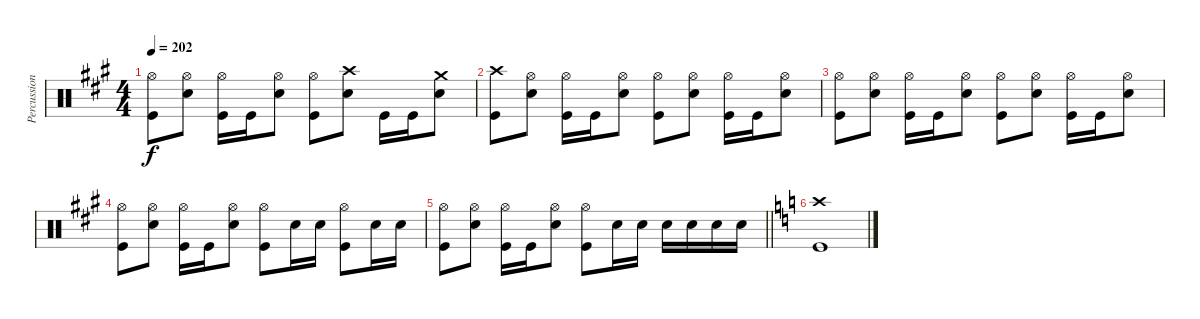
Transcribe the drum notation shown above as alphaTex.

\track ("Percussion" "Percussion") {instrument percussion}
\staff {score}
\articulation defaults
\ts (4 4)
\tempo 202
\clef neutral
\ks a
("Hi-Hat (open)" "Kick (hit)").8{dy f} ("Hi-Hat (open)" "Electric Snare (hit)").8 ("Hi-Hat (open)" "Kick (hit)").16 "Kick (hit)".16 ("Hi-Hat (open)" "Electric Snare (hit)").8 ("Hi-Hat (open)" "Kick (hit)").8 ("Crash high (hit)" "Electric Snare (hit)").8 "Kick (hit)".16 "Kick (hit)".16 ("Crash medium (hit)" "Electric Snare (hit)").8 |
("Crash high (hit)" "Kick (hit)").8 ("Hi-Hat (open)" "Electric Snare (hit)").8 ("Hi-Hat (open)" "Kick (hit)").16 "Kick (hit)".16 ("Hi-Hat (open)" "Electric Snare (hit)").8 ("Hi-Hat (open)" "Kick (hit)").8 ("Hi-Hat (open)" "Electric Snare (hit)").8 ("Hi-Hat (open)" "Kick (hit)").16 "Kick (hit)".16 ("Hi-Hat (open)" "Electric Snare (hit)").8 |
("Hi-Hat (open)" "Kick (hit)").8 ("Hi-Hat (open)" "Electric Snare (hit)").8 ("Hi-Hat (open)" "Kick (hit)").16 "Kick (hit)".16 ("Hi-Hat (open)" "Electric Snare (hit)").8 ("Hi-Hat (open)" "Kick (hit)").8 ("Hi-Hat (open)" "Electric Snare (hit)").8 ("Hi-Hat (open)" "Kick (hit)").16 "Kick (hit)".16 ("Hi-Hat (open)" "Electric Snare (hit)").8 |
("Hi-Hat (open)" "Kick (hit)").8 ("Hi-Hat (open)" "Electric Snare (hit)").8 ("Hi-Hat (open)" "Kick (hit)").16 "Kick (hit)".16 ("Hi-Hat (open)" "Electric Snare (hit)").8 ("Hi-Hat (open)" "Kick (hit)").8 "Electric Snare (hit)".16 "Electric Snare (hit)".16 ("Hi-Hat (open)" "Kick (hit)").8 "Electric Snare (hit)".16 "Electric Snare (hit)".16 |
\barLineRight lightlight
("Hi-Hat (open)" "Kick (hit)").8 ("Hi-Hat (open)" "Electric Snare (hit)").8 ("Hi-Hat (open)" "Kick (hit)").16 "Kick (hit)".16 ("Hi-Hat (open)" "Electric Snare (hit)").8 ("Hi-Hat (open)" "Kick (hit)").8 "Electric Snare (hit)".16 "Electric Snare (hit)".16 "Electric Snare (hit)".16 "Electric Snare (hit)".16 "Electric Snare (hit)".16 "Electric Snare (hit)".16 |
\ks c
("Crash high (hit)" "Kick (hit)").1
